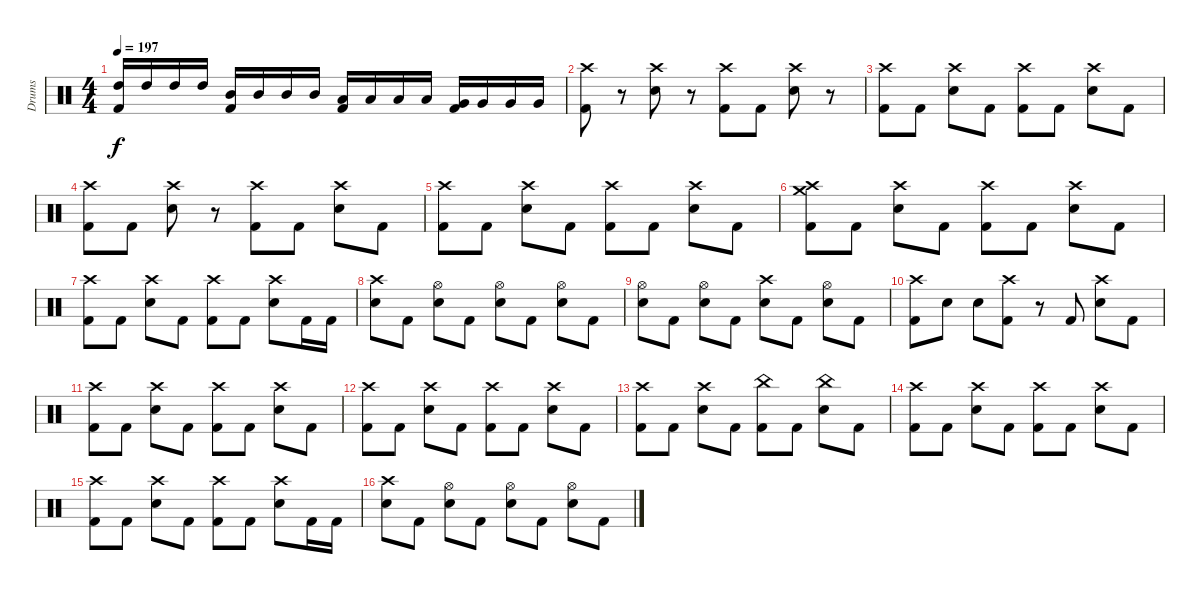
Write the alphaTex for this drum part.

\track ("Drums" "Drums") {instrument percussion}
\staff {score}
\articulation defaults
\ts (4 4)
\tempo 197
\clef neutral
\ks c
("High Tom (hit)" "Kick (hit) 2").16{dy f} "High Tom (hit)".16 "High Tom (hit)".16 "High Tom (hit)".16 ("Mid Tom (hit)" "Kick (hit) 2").16 "Mid Tom (hit)".16 "Mid Tom (hit)".16 "Mid Tom (hit)".16 ("Low Tom (hit)" "Kick (hit) 2").16 "Low Tom (hit)".16 "Low Tom (hit)".16 "Low Tom (hit)".16 ("Very Low Tom (hit)" "Kick (hit) 2").16 "Very Low Tom (hit)".16 "Very Low Tom (hit)".16 "Very Low Tom (hit)".16 |
("Crash high (hit)" "Kick (hit) 2").8 r.8 ("Crash high (hit)" "Electric Snare (hit)").8 r.8 ("Crash high (hit)" "Kick (hit) 2").8 "Kick (hit) 2".8 ("Crash high (hit)" "Electric Snare (hit)").8 r.8 |
("Crash high (hit)" "Kick (hit) 2").8 "Kick (hit) 2".8 ("Crash high (hit)" "Electric Snare (hit)").8 "Kick (hit) 2".8 ("Crash high (hit)" "Kick (hit) 2").8 "Kick (hit) 2".8 ("Crash high (hit)" "Electric Snare (hit)").8 "Kick (hit) 2".8 |
("Crash high (hit)" "Kick (hit) 2").8 "Kick (hit) 2".8 ("Crash high (hit)" "Electric Snare (hit)").8 r.8 ("Crash high (hit)" "Kick (hit) 2").8 "Kick (hit) 2".8 ("Crash high (hit)" "Electric Snare (hit)").8 "Kick (hit) 2".8 |
("Crash high (hit)" "Kick (hit) 2").8 "Kick (hit) 2".8 ("Crash high (hit)" "Electric Snare (hit)").8 "Kick (hit) 2".8 ("Crash high (hit)" "Kick (hit) 2").8 "Kick (hit) 2".8 ("Crash high (hit)" "Electric Snare (hit)").8 "Kick (hit) 2".8 |
("Crash high (hit)" "Crash medium (hit)" "Kick (hit) 2").8 "Kick (hit) 2".8 ("Crash high (hit)" "Electric Snare (hit)").8 "Kick (hit) 2".8 ("Crash high (hit)" "Kick (hit) 2").8 "Kick (hit) 2".8 ("Crash high (hit)" "Electric Snare (hit)").8 "Kick (hit) 2".8 |
("Crash high (hit)" "Kick (hit) 2").8 "Kick (hit) 2".8 ("Crash high (hit)" "Electric Snare (hit)").8 "Kick (hit) 2".8 ("Crash high (hit)" "Kick (hit) 2").8 "Kick (hit) 2".8 ("Crash high (hit)" "Electric Snare (hit)").8 "Kick (hit) 2".16 "Kick (hit) 2".16 |
("Crash high (hit)" "Electric Snare (hit)").8 "Kick (hit) 2".8 ("Hi-Hat (open)" "Electric Snare (hit)").8 "Kick (hit) 2".8 ("Hi-Hat (open)" "Electric Snare (hit)").8 "Kick (hit) 2".8 ("Hi-Hat (open)" "Electric Snare (hit)").8 "Kick (hit) 2".8 |
("Hi-Hat (open)" "Electric Snare (hit)").8 "Kick (hit) 2".8 ("Hi-Hat (open)" "Electric Snare (hit)").8 "Kick (hit) 2".8 ("Crash high (hit)" "Electric Snare (hit)").8 "Kick (hit) 2".8 ("Hi-Hat (open)" "Electric Snare (hit)").8 "Kick (hit) 2".8 |
("Crash high (hit)" "Kick (hit) 2").8 "Electric Snare (hit)".8 "Electric Snare (hit)".8 ("Crash high (hit)" "Kick (hit) 2").8 r.8 "Kick (hit) 2".8 ("Crash high (hit)" "Electric Snare (hit)").8 "Kick (hit) 2".8 |
("Crash high (hit)" "Kick (hit) 2").8 "Kick (hit) 2".8 ("Crash high (hit)" "Electric Snare (hit)").8 "Kick (hit) 2".8 ("Crash high (hit)" "Kick (hit) 2").8 "Kick (hit) 2".8 ("Crash high (hit)" "Electric Snare (hit)").8 "Kick (hit) 2".8 |
("Crash high (hit)" "Kick (hit) 2").8 "Kick (hit) 2".8 ("Crash high (hit)" "Electric Snare (hit)").8 "Kick (hit) 2".8 ("Crash high (hit)" "Kick (hit) 2").8 "Kick (hit) 2".8 ("Crash high (hit)" "Electric Snare (hit)").8 "Kick (hit) 2".8 |
("Crash high (hit)" "Kick (hit) 2").8 "Kick (hit) 2".8 ("Crash high (hit)" "Electric Snare (hit)").8 "Kick (hit) 2".8 ("China (hit)" "Kick (hit) 2").8 "Kick (hit) 2".8 ("China (hit)" "Electric Snare (hit)").8 "Kick (hit) 2".8 |
("Crash high (hit)" "Kick (hit) 2").8 "Kick (hit) 2".8 ("Crash high (hit)" "Electric Snare (hit)").8 "Kick (hit) 2".8 ("Crash high (hit)" "Kick (hit) 2").8 "Kick (hit) 2".8 ("Crash high (hit)" "Electric Snare (hit)").8 "Kick (hit) 2".8 |
("Crash high (hit)" "Kick (hit) 2").8 "Kick (hit) 2".8 ("Crash high (hit)" "Electric Snare (hit)").8 "Kick (hit) 2".8 ("Crash high (hit)" "Kick (hit) 2").8 "Kick (hit) 2".8 ("Crash high (hit)" "Electric Snare (hit)").8 "Kick (hit) 2".16 "Kick (hit) 2".16 |
("Crash high (hit)" "Electric Snare (hit)").8 "Kick (hit) 2".8 ("Hi-Hat (open)" "Electric Snare (hit)").8 "Kick (hit) 2".8 ("Hi-Hat (open)" "Electric Snare (hit)").8 "Kick (hit) 2".8 ("Hi-Hat (open)" "Electric Snare (hit)").8 "Kick (hit) 2".8
